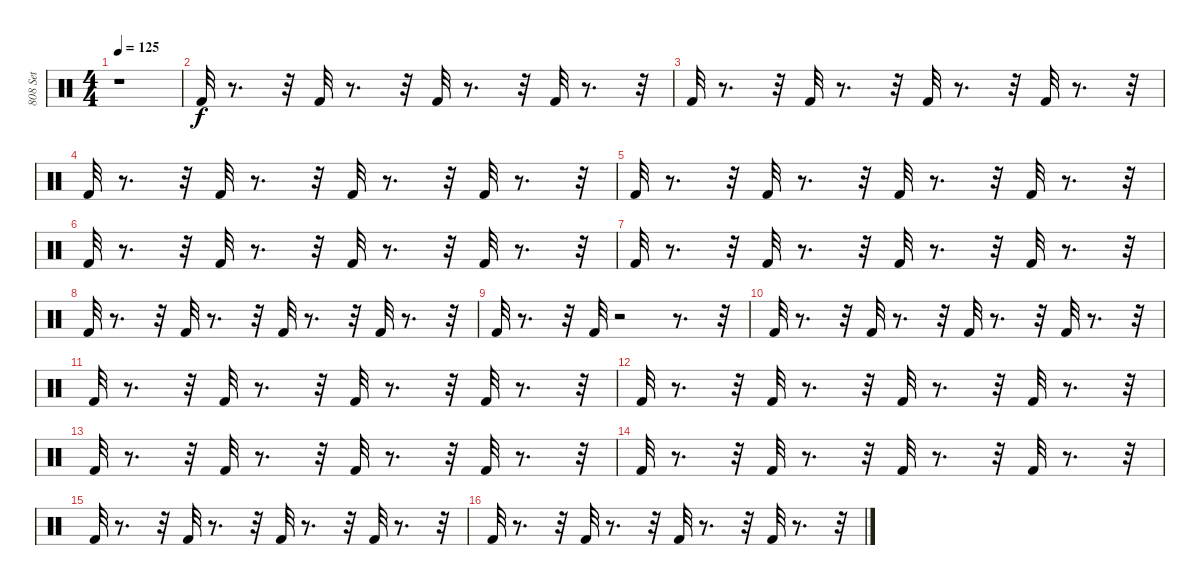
\track ("808 Set" "808 Set") {instrument percussion}
\staff {score}
\articulation defaults
\ts (4 4)
\tempo 125
\clef neutral
\ks c
r.1{dy f} |
"Kick (hit) 2".32 r.8{d} r.32 "Kick (hit) 2".32 r.8{d} r.32 "Kick (hit) 2".32 r.8{d} r.32 "Kick (hit) 2".32 r.8{d} r.32 |
"Kick (hit) 2".32 r.8{d} r.32 "Kick (hit) 2".32 r.8{d} r.32 "Kick (hit) 2".32 r.8{d} r.32 "Kick (hit) 2".32 r.8{d} r.32 |
"Kick (hit) 2".32 r.8{d} r.32 "Kick (hit) 2".32 r.8{d} r.32 "Kick (hit) 2".32 r.8{d} r.32 "Kick (hit) 2".32 r.8{d} r.32 |
"Kick (hit) 2".32 r.8{d} r.32 "Kick (hit) 2".32 r.8{d} r.32 "Kick (hit) 2".32 r.8{d} r.32 "Kick (hit) 2".32 r.8{d} r.32 |
"Kick (hit) 2".32 r.8{d} r.32 "Kick (hit) 2".32 r.8{d} r.32 "Kick (hit) 2".32 r.8{d} r.32 "Kick (hit) 2".32 r.8{d} r.32 |
"Kick (hit) 2".32 r.8{d} r.32 "Kick (hit) 2".32 r.8{d} r.32 "Kick (hit) 2".32 r.8{d} r.32 "Kick (hit) 2".32 r.8{d} r.32 |
"Kick (hit) 2".32 r.8{d} r.32 "Kick (hit) 2".32 r.8{d} r.32 "Kick (hit) 2".32 r.8{d} r.32 "Kick (hit) 2".32 r.8{d} r.32 |
"Kick (hit) 2".32 r.8{d} r.32 "Kick (hit) 2".32 r.2 r.8{d} r.32 |
"Kick (hit) 2".32 r.8{d} r.32 "Kick (hit) 2".32 r.8{d} r.32 "Kick (hit) 2".32 r.8{d} r.32 "Kick (hit) 2".32 r.8{d} r.32 |
"Kick (hit) 2".32 r.8{d} r.32 "Kick (hit) 2".32 r.8{d} r.32 "Kick (hit) 2".32 r.8{d} r.32 "Kick (hit) 2".32 r.8{d} r.32 |
"Kick (hit) 2".32 r.8{d} r.32 "Kick (hit) 2".32 r.8{d} r.32 "Kick (hit) 2".32 r.8{d} r.32 "Kick (hit) 2".32 r.8{d} r.32 |
"Kick (hit) 2".32 r.8{d} r.32 "Kick (hit) 2".32 r.8{d} r.32 "Kick (hit) 2".32 r.8{d} r.32 "Kick (hit) 2".32 r.8{d} r.32 |
"Kick (hit) 2".32 r.8{d} r.32 "Kick (hit) 2".32 r.8{d} r.32 "Kick (hit) 2".32 r.8{d} r.32 "Kick (hit) 2".32 r.8{d} r.32 |
"Kick (hit) 2".32 r.8{d} r.32 "Kick (hit) 2".32 r.8{d} r.32 "Kick (hit) 2".32 r.8{d} r.32 "Kick (hit) 2".32 r.8{d} r.32 |
"Kick (hit) 2".32 r.8{d} r.32 "Kick (hit) 2".32 r.8{d} r.32 "Kick (hit) 2".32 r.8{d} r.32 "Kick (hit) 2".32 r.8{d} r.32
